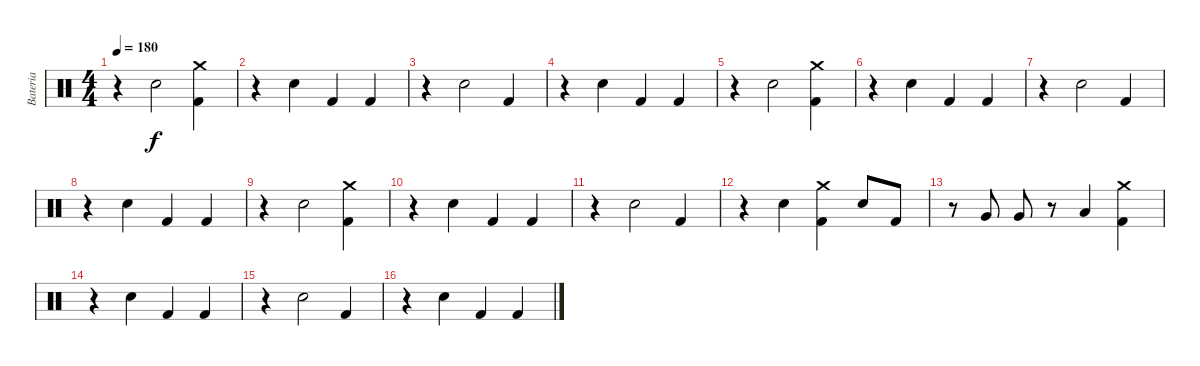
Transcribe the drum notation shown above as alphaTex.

\track ("Bateria" "Bateria") {instrument percussion}
\staff {score}
\articulation defaults
\ts (4 4)
\tempo 180
\clef neutral
\ks c
r.4{dy f} "Electric Snare (hit)".2 ("Crash medium (hit)" "Kick (hit) 2").4 |
r.4 "Electric Snare (hit)".4 "Kick (hit) 2".4 "Kick (hit) 2".4 |
r.4 "Electric Snare (hit)".2 "Kick (hit) 2".4 |
r.4 "Electric Snare (hit)".4 "Kick (hit) 2".4 "Kick (hit) 2".4 |
r.4 "Electric Snare (hit)".2 ("Crash medium (hit)" "Kick (hit) 2").4 |
r.4 "Electric Snare (hit)".4 "Kick (hit) 2".4 "Kick (hit) 2".4 |
r.4 "Electric Snare (hit)".2 "Kick (hit) 2".4 |
r.4 "Electric Snare (hit)".4 "Kick (hit) 2".4 "Kick (hit) 2".4 |
r.4 "Electric Snare (hit)".2 ("Crash medium (hit)" "Kick (hit) 2").4 |
r.4 "Electric Snare (hit)".4 "Kick (hit) 2".4 "Kick (hit) 2".4 |
r.4 "Electric Snare (hit)".2 "Kick (hit) 2".4 |
r.4 "Electric Snare (hit)".4 ("Crash medium (hit)" "Kick (hit) 2").4 "Electric Snare (hit)".8 "Kick (hit) 2".8 |
r.8 "Very Low Tom (hit)".8 "Very Low Tom (hit)".8 r.8 "Low Floor Tom (hit)".4 ("Crash medium (hit)" "Kick (hit) 2").4 |
r.4 "Electric Snare (hit)".4 "Kick (hit) 2".4 "Kick (hit) 2".4 |
r.4 "Electric Snare (hit)".2 "Kick (hit) 2".4 |
r.4 "Electric Snare (hit)".4 "Kick (hit) 2".4 "Kick (hit) 2".4
